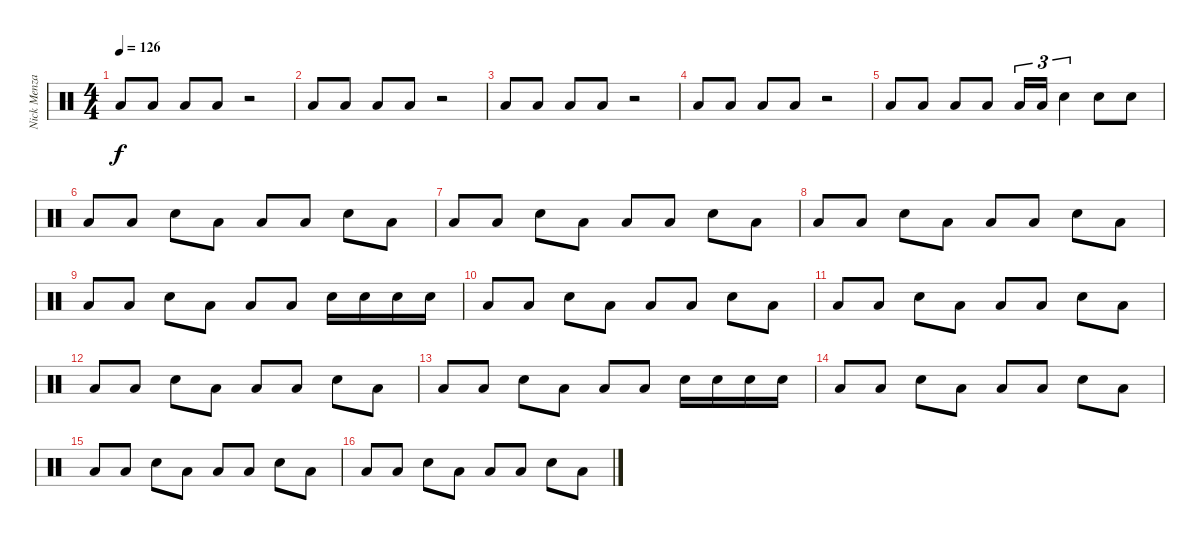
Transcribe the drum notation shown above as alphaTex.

\track ("Nick Menza" "Nick Menza") {instrument percussion}
\staff {score}
\articulation defaults
\ts (4 4)
\tempo 126
\clef neutral
\ks c "Low Tom (hit)".8{dy f} "Low Tom (hit)".8 "Low Tom (hit)".8 "Low Tom (hit)".8
r.2 |
"Low Tom (hit)".8 "Low Tom (hit)".8 "Low Tom (hit)".8 "Low Tom (hit)".8 r.2 |
"Low Tom (hit)".8 "Low Tom (hit)".8 "Low Tom (hit)".8 "Low Tom (hit)".8 r.2 |
"Low Tom (hit)".8 "Low Tom (hit)".8 "Low Tom (hit)".8 "Low Tom (hit)".8 r.2 |
"Low Tom (hit)".8 "Low Tom (hit)".8 "Low Tom (hit)".8 "Low Tom (hit)".8 "Low Tom (hit)".16{tu (3 2)} "Low Tom (hit)".16{tu (3 2)} "Electric Snare (hit)".4{tu (3 2)} "Electric Snare (hit)".8 "Electric Snare (hit)".8 |
"Low Tom (hit)".8 "Low Tom (hit)".8 "Electric Snare (hit)".8 "Low Tom (hit)".8 "Low Tom (hit)".8 "Low Tom (hit)".8 "Electric Snare (hit)".8 "Low Tom (hit)".8 |
"Low Tom (hit)".8 "Low Tom (hit)".8 "Electric Snare (hit)".8 "Low Tom (hit)".8 "Low Tom (hit)".8 "Low Tom (hit)".8 "Electric Snare (hit)".8 "Low Tom (hit)".8 |
"Low Tom (hit)".8 "Low Tom (hit)".8 "Electric Snare (hit)".8 "Low Tom (hit)".8 "Low Tom (hit)".8 "Low Tom (hit)".8 "Electric Snare (hit)".8 "Low Tom (hit)".8 |
"Low Tom (hit)".8 "Low Tom (hit)".8 "Electric Snare (hit)".8 "Low Tom (hit)".8 "Low Tom (hit)".8 "Low Tom (hit)".8 "Electric Snare (hit)".16 "Electric Snare (hit)".16 "Electric Snare (hit)".16 "Electric Snare (hit)".16 |
"Low Tom (hit)".8 "Low Tom (hit)".8 "Electric Snare (hit)".8 "Low Tom (hit)".8 "Low Tom (hit)".8 "Low Tom (hit)".8 "Electric Snare (hit)".8 "Low Tom (hit)".8 |
"Low Tom (hit)".8 "Low Tom (hit)".8 "Electric Snare (hit)".8 "Low Tom (hit)".8 "Low Tom (hit)".8 "Low Tom (hit)".8 "Electric Snare (hit)".8 "Low Tom (hit)".8 |
"Low Tom (hit)".8 "Low Tom (hit)".8 "Electric Snare (hit)".8 "Low Tom (hit)".8 "Low Tom (hit)".8 "Low Tom (hit)".8 "Electric Snare (hit)".8 "Low Tom (hit)".8 |
"Low Tom (hit)".8 "Low Tom (hit)".8 "Electric Snare (hit)".8 "Low Tom (hit)".8 "Low Tom (hit)".8 "Low Tom (hit)".8 "Electric Snare (hit)".16 "Electric Snare (hit)".16 "Electric Snare (hit)".16 "Electric Snare (hit)".16 |
"Low Tom (hit)".8 "Low Tom (hit)".8 "Electric Snare (hit)".8 "Low Tom (hit)".8 "Low Tom (hit)".8 "Low Tom (hit)".8 "Electric Snare (hit)".8 "Low Tom (hit)".8 |
"Low Tom (hit)".8 "Low Tom (hit)".8 "Electric Snare (hit)".8 "Low Tom (hit)".8 "Low Tom (hit)".8 "Low Tom (hit)".8 "Electric Snare (hit)".8 "Low Tom (hit)".8 |
"Low Tom (hit)".8 "Low Tom (hit)".8 "Electric Snare (hit)".8 "Low Tom (hit)".8 "Low Tom (hit)".8 "Low Tom (hit)".8 "Electric Snare (hit)".8 "Low Tom (hit)".8
